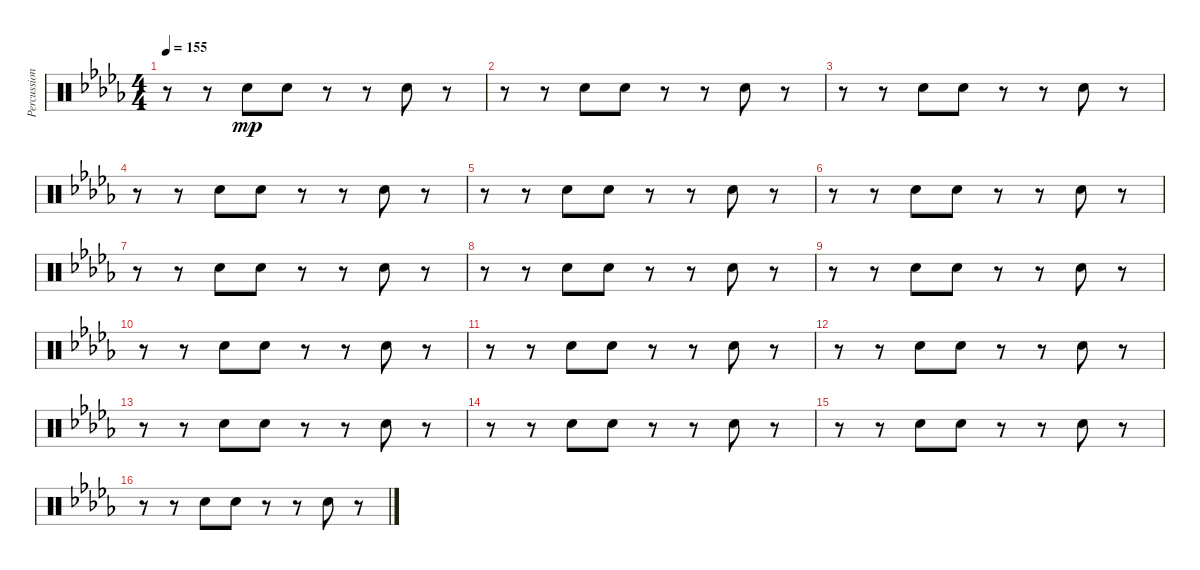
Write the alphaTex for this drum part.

\track ("Percussions" "Percussion") {instrument percussion}
\staff {score}
\articulation defaults
\ts (4 4)
\tempo 155
\clef neutral
\ks db
r.8{dy mp} r.8 "Hand Clap (hit)".8 "Hand Clap (hit)".8 r.8 r.8 "Hand Clap (hit)".8 r.8 |
r.8 r.8 "Hand Clap (hit)".8 "Hand Clap (hit)".8 r.8 r.8 "Hand Clap (hit)".8 r.8 |
r.8 r.8 "Hand Clap (hit)".8 "Hand Clap (hit)".8 r.8 r.8 "Hand Clap (hit)".8 r.8 |
r.8 r.8 "Hand Clap (hit)".8 "Hand Clap (hit)".8 r.8 r.8 "Hand Clap (hit)".8 r.8 |
r.8 r.8 "Hand Clap (hit)".8 "Hand Clap (hit)".8 r.8 r.8 "Hand Clap (hit)".8 r.8 |
r.8 r.8 "Hand Clap (hit)".8 "Hand Clap (hit)".8 r.8 r.8 "Hand Clap (hit)".8 r.8 |
r.8 r.8 "Hand Clap (hit)".8 "Hand Clap (hit)".8 r.8 r.8 "Hand Clap (hit)".8 r.8 |
r.8 r.8 "Hand Clap (hit)".8 "Hand Clap (hit)".8 r.8 r.8 "Hand Clap (hit)".8 r.8 |
r.8 r.8 "Hand Clap (hit)".8 "Hand Clap (hit)".8 r.8 r.8 "Hand Clap (hit)".8 r.8 |
r.8 r.8 "Hand Clap (hit)".8 "Hand Clap (hit)".8 r.8 r.8 "Hand Clap (hit)".8 r.8 |
r.8 r.8 "Hand Clap (hit)".8 "Hand Clap (hit)".8 r.8 r.8 "Hand Clap (hit)".8 r.8 |
r.8 r.8 "Hand Clap (hit)".8 "Hand Clap (hit)".8 r.8 r.8 "Hand Clap (hit)".8 r.8 |
r.8 r.8 "Hand Clap (hit)".8 "Hand Clap (hit)".8 r.8 r.8 "Hand Clap (hit)".8 r.8 |
r.8 r.8 "Hand Clap (hit)".8 "Hand Clap (hit)".8 r.8 r.8 "Hand Clap (hit)".8 r.8 |
r.8 r.8 "Hand Clap (hit)".8 "Hand Clap (hit)".8 r.8 r.8 "Hand Clap (hit)".8 r.8 |
r.8 r.8 "Hand Clap (hit)".8 "Hand Clap (hit)".8 r.8 r.8 "Hand Clap (hit)".8 r.8
